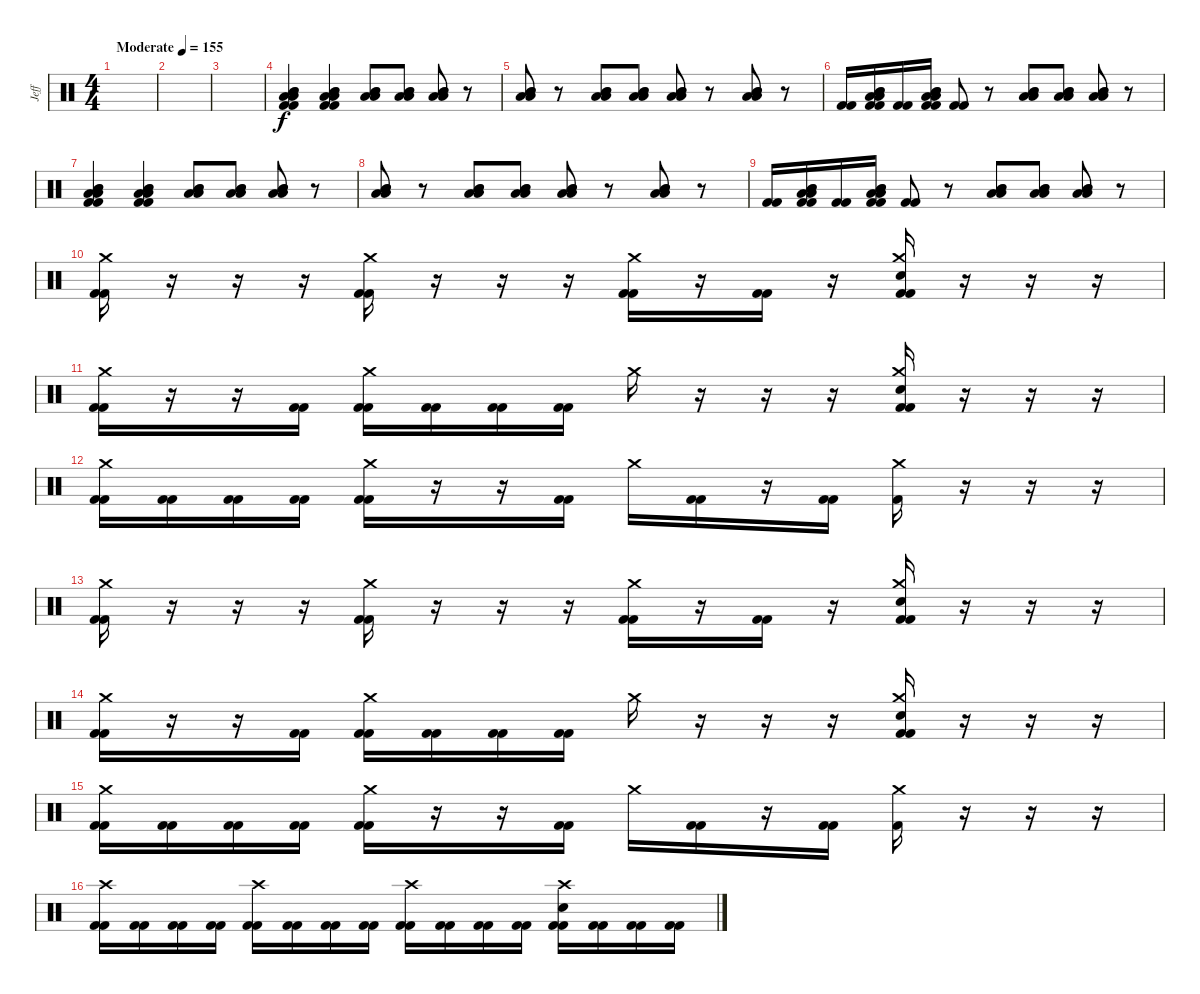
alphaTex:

\track ("Jeff" "Jeff") {instrument percussion}
\staff {score}
\articulation defaults
\ts (4 4)
\tempo (155 "Moderate")
\clef neutral
\ks c
|
|
|
("Low Tom (hit)" "Low Tom (hit)" "Mid Tom (hit)" "Mid Tom (hit)" "Kick (hit) 2" "Kick (hit) 2").4 ("Low Tom (hit)" "Low Tom (hit)" "Mid Tom (hit)" "Mid Tom (hit)" "Kick (hit) 2" "Kick (hit) 2").4 ("Low Tom (hit)" "Low Tom (hit)" "Mid Tom (hit)" "Mid Tom (hit)").8 ("Low Tom (hit)" "Low Tom (hit)" "Mid Tom (hit)" "Mid Tom (hit)").8 ("Low Tom (hit)" "Low Tom (hit)" "Mid Tom (hit)" "Mid Tom (hit)").8 r.8 |
("Low Tom (hit)" "Low Tom (hit)" "Mid Tom (hit)" "Mid Tom (hit)").8 r.8 ("Low Tom (hit)" "Low Tom (hit)" "Mid Tom (hit)" "Mid Tom (hit)").8 ("Low Tom (hit)" "Low Tom (hit)" "Mid Tom (hit)" "Mid Tom (hit)").8 ("Low Tom (hit)" "Low Tom (hit)" "Mid Tom (hit)" "Mid Tom (hit)").8 r.8 ("Low Tom (hit)" "Low Tom (hit)" "Mid Tom (hit)" "Mid Tom (hit)").8 r.8 |
("Kick (hit) 2" "Kick (hit) 2").16 ("Low Tom (hit)" "Low Tom (hit)" "Mid Tom (hit)" "Mid Tom (hit)" "Kick (hit) 2" "Kick (hit) 2").16 ("Kick (hit) 2" "Kick (hit) 2").16 ("Low Tom (hit)" "Low Tom (hit)" "Mid Tom (hit)" "Mid Tom (hit)" "Kick (hit) 2" "Kick (hit) 2").16 ("Kick (hit) 2" "Kick (hit) 2").8 r.8 ("Low Tom (hit)" "Low Tom (hit)" "Mid Tom (hit)" "Mid Tom (hit)").8 ("Low Tom (hit)" "Low Tom (hit)" "Mid Tom (hit)" "Mid Tom (hit)").8 ("Low Tom (hit)" "Low Tom (hit)" "Mid Tom (hit)" "Mid Tom (hit)").8 r.8 |
("Low Tom (hit)" "Low Tom (hit)" "Mid Tom (hit)" "Mid Tom (hit)" "Kick (hit) 2" "Kick (hit) 2").4 ("Low Tom (hit)" "Low Tom (hit)" "Mid Tom (hit)" "Mid Tom (hit)" "Kick (hit) 2" "Kick (hit) 2").4 ("Low Tom (hit)" "Low Tom (hit)" "Mid Tom (hit)" "Mid Tom (hit)").8 ("Low Tom (hit)" "Low Tom (hit)" "Mid Tom (hit)" "Mid Tom (hit)").8 ("Low Tom (hit)" "Low Tom (hit)" "Mid Tom (hit)" "Mid Tom (hit)").8 r.8 |
("Low Tom (hit)" "Low Tom (hit)" "Mid Tom (hit)" "Mid Tom (hit)").8 r.8 ("Low Tom (hit)" "Low Tom (hit)" "Mid Tom (hit)" "Mid Tom (hit)").8 ("Low Tom (hit)" "Low Tom (hit)" "Mid Tom (hit)" "Mid Tom (hit)").8 ("Low Tom (hit)" "Low Tom (hit)" "Mid Tom (hit)" "Mid Tom (hit)").8 r.8 ("Low Tom (hit)" "Low Tom (hit)" "Mid Tom (hit)" "Mid Tom (hit)").8 r.8 |
("Kick (hit) 2" "Kick (hit) 2").16 ("Low Tom (hit)" "Low Tom (hit)" "Mid Tom (hit)" "Mid Tom (hit)" "Kick (hit) 2" "Kick (hit) 2").16 ("Kick (hit) 2" "Kick (hit) 2").16 ("Low Tom (hit)" "Low Tom (hit)" "Mid Tom (hit)" "Mid Tom (hit)" "Kick (hit) 2" "Kick (hit) 2").16 ("Kick (hit) 2" "Kick (hit) 2").8 r.8 ("Low Tom (hit)" "Low Tom (hit)" "Mid Tom (hit)" "Mid Tom (hit)").8 ("Low Tom (hit)" "Low Tom (hit)" "Mid Tom (hit)" "Mid Tom (hit)").8 ("Low Tom (hit)" "Low Tom (hit)" "Mid Tom (hit)" "Mid Tom (hit)").8 r.8 |
("Crash medium (hit)" "Kick (hit) 2" "Kick (hit) 2").16 r.16 r.16 r.16 ("Crash medium (hit)" "Kick (hit) 2" "Kick (hit) 2").16 r.16 r.16 r.16 ("Crash medium (hit)" "Kick (hit) 2" "Kick (hit) 2").16 r.16 ("Kick (hit) 2" "Kick (hit) 2").16 r.16 ("Crash medium (hit)" "Snare (hit) 2" "Kick (hit) 2" "Kick (hit) 2").16 r.16 r.16 r.16 |
("Crash medium (hit)" "Kick (hit) 2" "Kick (hit) 2").16 r.16 r.16 ("Kick (hit) 2" "Kick (hit) 2").16 ("Crash medium (hit)" "Kick (hit) 2" "Kick (hit) 2").16 ("Kick (hit) 2" "Kick (hit) 2").16 ("Kick (hit) 2" "Kick (hit) 2").16 ("Kick (hit) 2" "Kick (hit) 2").16 "Crash medium (hit)".16 r.16 r.16 r.16 ("Crash medium (hit)" "Snare (hit) 2" "Kick (hit) 2" "Kick (hit) 2").16 r.16 r.16 r.16 |
("Crash medium (hit)" "Kick (hit) 2" "Kick (hit) 2").16 ("Kick (hit) 2" "Kick (hit) 2").16 ("Kick (hit) 2" "Kick (hit) 2").16 ("Kick (hit) 2" "Kick (hit) 2").16 ("Crash medium (hit)" "Kick (hit) 2" "Kick (hit) 2").16 r.16 r.16 ("Kick (hit) 2" "Kick (hit) 2").16 "Crash medium (hit)".16 ("Kick (hit) 2" "Kick (hit) 2").16 r.16 ("Kick (hit) 2" "Kick (hit) 2").16 ("Crash medium (hit)" "Kick (hit) 2").16 r.16 r.16 r.16 |
("Crash medium (hit)" "Kick (hit) 2" "Kick (hit) 2").16 r.16 r.16 r.16 ("Crash medium (hit)" "Kick (hit) 2" "Kick (hit) 2").16 r.16 r.16 r.16 ("Crash medium (hit)" "Kick (hit) 2" "Kick (hit) 2").16 r.16 ("Kick (hit) 2" "Kick (hit) 2").16 r.16 ("Crash medium (hit)" "Snare (hit) 2" "Kick (hit) 2" "Kick (hit) 2").16 r.16 r.16 r.16 |
("Crash medium (hit)" "Kick (hit) 2" "Kick (hit) 2").16 r.16 r.16 ("Kick (hit) 2" "Kick (hit) 2").16 ("Crash medium (hit)" "Kick (hit) 2" "Kick (hit) 2").16 ("Kick (hit) 2" "Kick (hit) 2").16 ("Kick (hit) 2" "Kick (hit) 2").16 ("Kick (hit) 2" "Kick (hit) 2").16 "Crash medium (hit)".16 r.16 r.16 r.16 ("Crash medium (hit)" "Snare (hit) 2" "Kick (hit) 2" "Kick (hit) 2").16 r.16 r.16 r.16 |
("Crash medium (hit)" "Kick (hit) 2" "Kick (hit) 2").16 ("Kick (hit) 2" "Kick (hit) 2").16 ("Kick (hit) 2" "Kick (hit) 2").16 ("Kick (hit) 2" "Kick (hit) 2").16 ("Crash medium (hit)" "Kick (hit) 2" "Kick (hit) 2").16 r.16 r.16 ("Kick (hit) 2" "Kick (hit) 2").16 "Crash medium (hit)".16 ("Kick (hit) 2" "Kick (hit) 2").16 r.16 ("Kick (hit) 2" "Kick (hit) 2").16 ("Crash medium (hit)" "Kick (hit) 2").16 r.16 r.16 r.16 |
("Crash high (hit)" "Kick (hit) 2" "Kick (hit) 2").16 ("Kick (hit) 2" "Kick (hit) 2").16 ("Kick (hit) 2" "Kick (hit) 2").16 ("Kick (hit) 2" "Kick (hit) 2").16 ("Crash high (hit)" "Kick (hit) 2" "Kick (hit) 2").16 ("Kick (hit) 2" "Kick (hit) 2").16 ("Kick (hit) 2" "Kick (hit) 2").16 ("Kick (hit) 2" "Kick (hit) 2").16 ("Crash high (hit)" "Kick (hit) 2" "Kick (hit) 2").16 ("Kick (hit) 2" "Kick (hit) 2").16 ("Kick (hit) 2" "Kick (hit) 2").16 ("Kick (hit) 2" "Kick (hit) 2").16 ("Crash high (hit)" "Snare (hit) 2" "Kick (hit) 2" "Kick (hit) 2").16 ("Kick (hit) 2" "Kick (hit) 2").16 ("Kick (hit) 2" "Kick (hit) 2").16 ("Kick (hit) 2" "Kick (hit) 2").16
